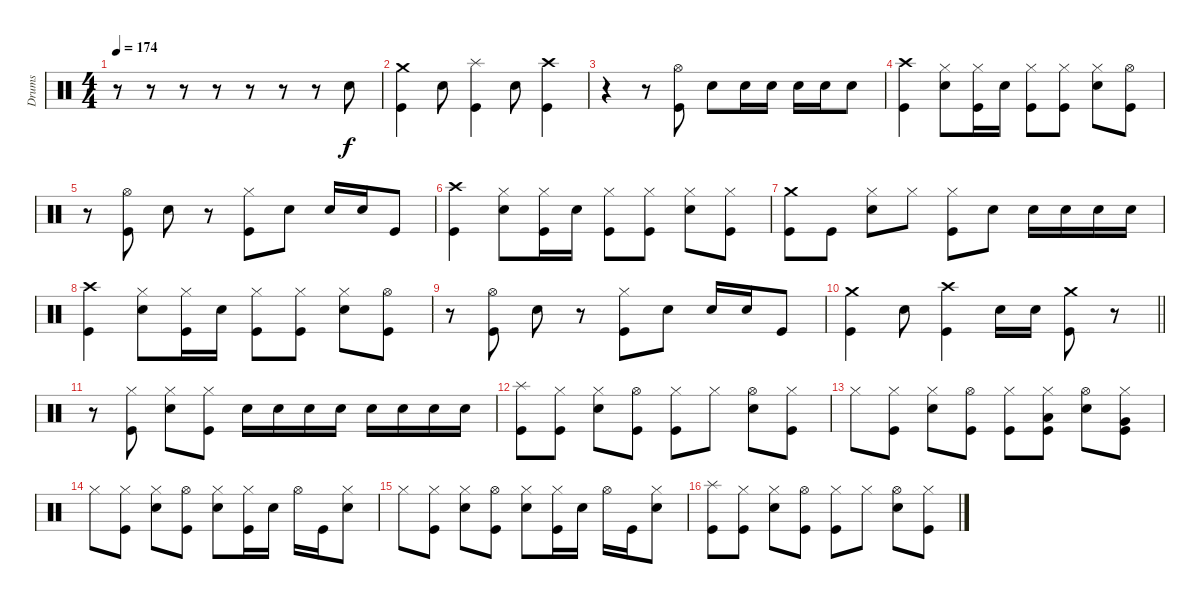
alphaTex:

\track ("Drums" "Drums") {instrument percussion}
\staff {score}
\articulation defaults
\ts (4 4)
\tempo 174
\clef neutral
\ks c
r.8{dy f} r.8 r.8 r.8 r.8 r.8 r.8 "Electric Snare (hit)".8 |
("Crash medium (hit)" "Kick (hit)").4 "Electric Snare (hit)".8 ("Splash (hit)" "Kick (hit)").4 "Electric Snare (hit)".8 ("Crash high (hit)" "Kick (hit)").4 |
r.4 r.8 ("Hi-Hat (open)" "Kick (hit)").8 "Electric Snare (hit)".8 "Electric Snare (hit)".16 "Electric Snare (hit)".16 "Electric Snare (hit)".16 "Electric Snare (hit)".16 "Electric Snare (hit)".8 |
("Crash high (hit)" "Kick (hit)").4 ("Hi-Hat (closed)" "Electric Snare (hit)").8 ("Hi-Hat (closed)" "Kick (hit)").16 "Electric Snare (hit)".16 ("Hi-Hat (closed)" "Kick (hit)").8 ("Hi-Hat (closed)" "Kick (hit)").8 ("Hi-Hat (closed)" "Electric Snare (hit)").8 ("Hi-Hat (open)" "Kick (hit)").8 |
r.8 ("Hi-Hat (open)" "Kick (hit)").8 "Electric Snare (hit)".8 r.8 ("Hi-Hat (closed)" "Kick (hit)").8 "Electric Snare (hit)".8 "Electric Snare (hit)".16 "Electric Snare (hit)".16 "Kick (hit)".8 |
("Crash high (hit)" "Kick (hit)").4 ("Hi-Hat (closed)" "Electric Snare (hit)").8 ("Hi-Hat (closed)" "Kick (hit)").16 "Electric Snare (hit)".16 ("Hi-Hat (closed)" "Kick (hit)").8 ("Hi-Hat (closed)" "Kick (hit)").8 ("Hi-Hat (closed)" "Electric Snare (hit)").8 ("Hi-Hat (closed)" "Kick (hit)").8 |
("Crash medium (hit)" "Kick (hit)").8 "Kick (hit)".8 ("Hi-Hat (closed)" "Electric Snare (hit)").8 "Hi-Hat (closed)".8 ("Hi-Hat (closed)" "Kick (hit)").8 "Electric Snare (hit)".8 "Electric Snare (hit)".16 "Electric Snare (hit)".16 "Electric Snare (hit)".16 "Electric Snare (hit)".16 |
("Crash high (hit)" "Kick (hit)").4 ("Hi-Hat (closed)" "Electric Snare (hit)").8 ("Hi-Hat (closed)" "Kick (hit)").16 "Electric Snare (hit)".16 ("Hi-Hat (closed)" "Kick (hit)").8 ("Hi-Hat (closed)" "Kick (hit)").8 ("Hi-Hat (closed)" "Electric Snare (hit)").8 ("Hi-Hat (open)" "Kick (hit)").8 |
r.8 ("Hi-Hat (open)" "Kick (hit)").8 "Electric Snare (hit)".8 r.8 ("Hi-Hat (closed)" "Kick (hit)").8 "Electric Snare (hit)".8 "Electric Snare (hit)".16 "Electric Snare (hit)".16 "Kick (hit)".8 |
\barLineRight lightlight
("Crash medium (hit)" "Kick (hit)").4 "Electric Snare (hit)".8 ("Crash high (hit)" "Kick (hit)").4 "Electric Snare (hit)".16 "Electric Snare (hit)".16 ("Crash medium (hit)" "Kick (hit)").8 r.8 |
r.8 ("Hi-Hat (closed)" "Kick (hit)").8 ("Hi-Hat (closed)" "Electric Snare (hit)").8 ("Hi-Hat (closed)" "Kick (hit)").8 "Electric Snare (hit)".16 "Electric Snare (hit)".16 "Electric Snare (hit)".16 "Electric Snare (hit)".16 "Electric Snare (hit)".16 "Electric Snare (hit)".16 "Electric Snare (hit)".16 "Electric Snare (hit)".16 |
("Splash (hit)" "Kick (hit)").8 ("Hi-Hat (closed)" "Kick (hit)").8 ("Hi-Hat (closed)" "Electric Snare (hit)").8 ("Hi-Hat (open)" "Kick (hit)").8 ("Hi-Hat (closed)" "Kick (hit)").8 "Hi-Hat (closed)".8 ("Hi-Hat (open)" "Electric Snare (hit)").8 ("Hi-Hat (closed)" "Kick (hit)").8 |
"Hi-Hat (closed)".8 ("Hi-Hat (closed)" "Kick (hit)").8 ("Hi-Hat (closed)" "Electric Snare (hit)").8 ("Hi-Hat (open)" "Kick (hit)").8 ("Hi-Hat (closed)" "Kick (hit)").8 ("Hi-Hat (closed)" "Low Tom (hit)" "Kick (hit)").8 ("Hi-Hat (open)" "Electric Snare (hit)").8 ("Hi-Hat (closed)" "Very Low Tom (hit)" "Kick (hit)").8 |
"Hi-Hat (closed)".8 ("Hi-Hat (closed)" "Kick (hit)").8 ("Hi-Hat (closed)" "Electric Snare (hit)").8 ("Hi-Hat (open)" "Kick (hit)").8 ("Hi-Hat (closed)" "Electric Snare (hit)").8 ("Hi-Hat (closed)" "Kick (hit)").16 "Electric Snare (hit)".16 "Hi-Hat (open)".16 "Kick (hit)".16 ("Hi-Hat (closed)" "Electric Snare (hit)").8 |
"Hi-Hat (closed)".8 ("Hi-Hat (closed)" "Kick (hit)").8 ("Hi-Hat (closed)" "Electric Snare (hit)").8 ("Hi-Hat (open)" "Kick (hit)").8 ("Hi-Hat (closed)" "Electric Snare (hit)").8 ("Hi-Hat (closed)" "Kick (hit)").16 "Electric Snare (hit)".16 "Hi-Hat (open)".16 "Kick (hit)".16 ("Hi-Hat (closed)" "Electric Snare (hit)").8 |
("Splash (hit)" "Kick (hit)").8 ("Hi-Hat (closed)" "Kick (hit)").8 ("Hi-Hat (closed)" "Electric Snare (hit)").8 ("Hi-Hat (open)" "Kick (hit)").8 ("Hi-Hat (closed)" "Kick (hit)").8 "Hi-Hat (closed)".8 ("Hi-Hat (open)" "Electric Snare (hit)").8 ("Hi-Hat (closed)" "Kick (hit)").8
